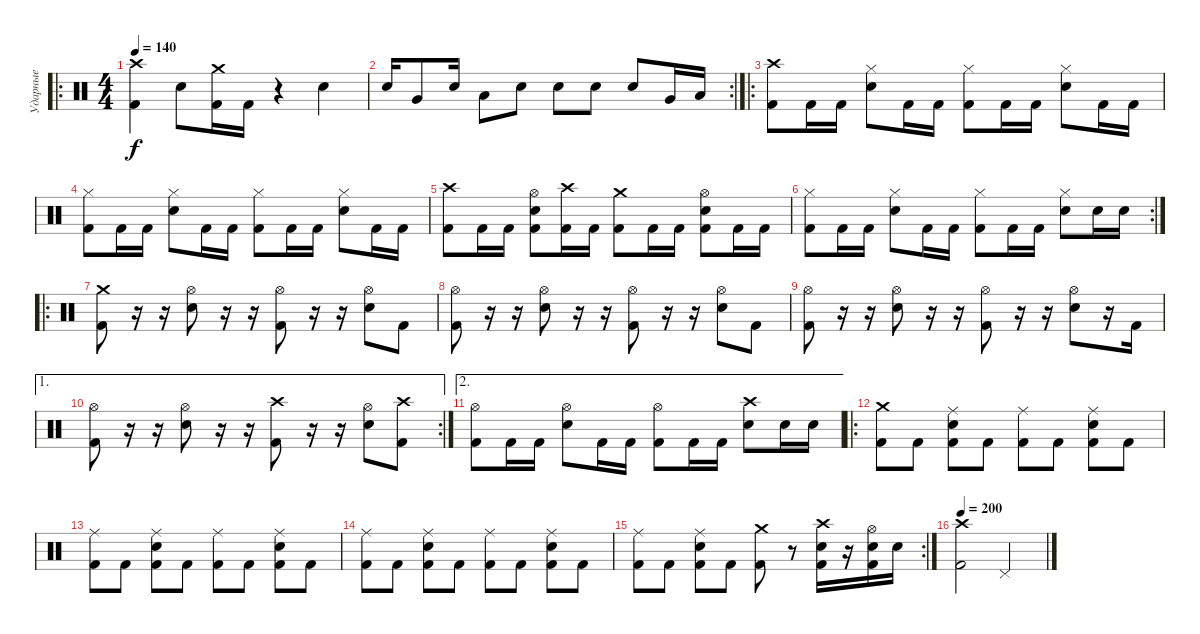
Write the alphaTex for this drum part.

\track ("Ударные" "Ударные") {instrument percussion}
\staff
\articulation defaults
\ro
\ts (4 4)
\tempo 140
\clef neutral
\ks c
("Kick (hit) 2" "Crash high (hit)").4{dy f} "Snare (hit) 2".8 ("Kick (hit) 2" "Crash medium (hit)").16 "Kick (hit) 2".16 r.4 "Snare (hit) 2".4 |
\rc 2 "Snare (hit) 2".16 "Very Low Tom (hit)".8 "Snare (hit) 2".16 "Low Tom (hit)".8 "Snare (hit) 2".8 "Snare (hit) 2".8 "Snare (hit) 2".8 "Snare (hit) 2".8 "Very Low Tom (hit)".16 "Low Tom (hit)".16
|
\ro
("Kick (hit) 2" "Crash high (hit)").8 "Kick (hit) 2".16 "Kick (hit) 2".16 ("Snare (hit) 2" "Hi-Hat (closed)").8 "Kick (hit) 2".16 "Kick (hit) 2".16 ("Kick (hit) 2" "Hi-Hat (closed)").8 "Kick (hit) 2".16 "Kick (hit) 2".16 ("Snare (hit) 2" "Hi-Hat (closed)").8 "Kick (hit) 2".16 "Kick (hit) 2".16 |
("Kick (hit) 2" "Hi-Hat (closed)").8 "Kick (hit) 2".16 "Kick (hit) 2".16 ("Snare (hit) 2" "Hi-Hat (closed)").8 "Kick (hit) 2".16 "Kick (hit) 2".16 ("Kick (hit) 2" "Hi-Hat (closed)").8 "Kick (hit) 2".16 "Kick (hit) 2".16 ("Snare (hit) 2" "Hi-Hat (closed)").8 "Kick (hit) 2".16 "Kick (hit) 2".16 |
("Kick (hit) 2" "Crash high (hit)").8 "Kick (hit) 2".16 "Kick (hit) 2".16 ("Snare (hit) 2" "Kick (hit) 2" "Hi-Hat (open)").8 ("Kick (hit) 2" "Crash high (hit)").16 "Kick (hit) 2".16 ("Kick (hit) 2" "Crash medium (hit)").8 "Kick (hit) 2".16 "Kick (hit) 2".16 ("Kick (hit) 2" "Snare (hit) 2" "Hi-Hat (open)").8 "Kick (hit) 2".16 "Kick (hit) 2".16 |
\rc 2
("Kick (hit) 2" "Hi-Hat (closed)").8 "Kick (hit) 2".16 "Kick (hit) 2".16 ("Snare (hit) 2" "Hi-Hat (closed)").8 "Kick (hit) 2".16 "Kick (hit) 2".16 ("Kick (hit) 2" "Hi-Hat (closed)").8 "Kick (hit) 2".16 "Kick (hit) 2".16 ("Snare (hit) 2" "Hi-Hat (closed)").8 "Snare (hit) 2".16 "Snare (hit) 2".16 |
\ro
("Kick (hit) 2" "Crash medium (hit)").8 r.16 r.16 ("Snare (hit) 2" "Hi-Hat (open)").8 r.16 r.16 ("Kick (hit) 2" "Hi-Hat (open)").8 r.16 r.16 ("Snare (hit) 2" "Hi-Hat (open)").8 "Kick (hit) 2".8 |
("Kick (hit) 2" "Hi-Hat (open)").8 r.16 r.16 ("Snare (hit) 2" "Hi-Hat (open)").8 r.16 r.16 ("Kick (hit) 2" "Hi-Hat (open)").8 r.16 r.16 ("Snare (hit) 2" "Hi-Hat (open)").8 "Kick (hit) 2".8 |
("Kick (hit) 2" "Hi-Hat (open)").8 r.16 r.16 ("Snare (hit) 2" "Hi-Hat (open)").8 r.16 r.16 ("Kick (hit) 2" "Hi-Hat (open)").8 r.16 r.16 ("Snare (hit) 2" "Hi-Hat (open)").8 r.16 "Kick (hit) 2".16 |
\ae 1
\rc 2
("Kick (hit) 2" "Hi-Hat (open)").8 r.16 r.16 ("Snare (hit) 2" "Hi-Hat (open)").8 r.16 r.16 ("Kick (hit) 2" "Crash high (hit)").8 r.16 r.16 ("Snare (hit) 2" "Hi-Hat (open)").8 ("Kick (hit) 2" "Crash high (hit)").8 |
\ae 2
("Kick (hit) 2" "Hi-Hat (open)").8 "Kick (hit) 2".16 "Kick (hit) 2".16 ("Snare (hit) 2" "Hi-Hat (open)").8 "Kick (hit) 2".16 "Kick (hit) 2".16 ("Kick (hit) 2" "Hi-Hat (open)").8 "Kick (hit) 2".16 "Kick (hit) 2".16 ("Snare (hit) 2" "Crash high (hit)").8 "Snare (hit) 2".16 "Snare (hit) 2".16 |
\ro
("Kick (hit) 2" "Crash medium (hit)").8 "Kick (hit) 2".8 ("Kick (hit) 2" "Snare (hit) 2" "Ride (middle)").8 "Kick (hit) 2".8 ("Kick (hit) 2" "Ride (middle)").8 "Kick (hit) 2".8 ("Kick (hit) 2" "Snare (hit) 2" "Ride (middle)").8 "Kick (hit) 2".8 |
("Kick (hit) 2" "Ride (middle)").8 "Kick (hit) 2".8 ("Kick (hit) 2" "Snare (hit) 2" "Ride (middle)").8 "Kick (hit) 2".8 ("Kick (hit) 2" "Ride (middle)").8 "Kick (hit) 2".8 ("Kick (hit) 2" "Snare (hit) 2" "Ride (middle)").8 "Kick (hit) 2".8 |
("Kick (hit) 2" "Ride (middle)").8 "Kick (hit) 2".8 ("Kick (hit) 2" "Snare (hit) 2" "Ride (middle)").8 "Kick (hit) 2".8 ("Kick (hit) 2" "Ride (middle)").8 "Kick (hit) 2".8 ("Kick (hit) 2" "Snare (hit) 2" "Ride (middle)").8 "Kick (hit) 2".8 |
\rc 2
("Kick (hit) 2" "Ride (middle)").8 "Kick (hit) 2".8 ("Kick (hit) 2" "Snare (hit) 2" "Ride (middle)").8 "Kick (hit) 2".8 ("Kick (hit) 2" "Crash medium (hit)").8 r.8 ("Kick (hit) 2" "Snare (hit) 2" "Crash high (hit)").16 r.16 ("Kick (hit) 2" "Snare (hit) 2" "Hi-Hat (open)").16 "Snare (hit) 2".16 |
\tempo 180
\tempo 200
("Crash high (hit)" "Kick (hit) 2").2 "Pedal Hi-Hat (hit)".2
